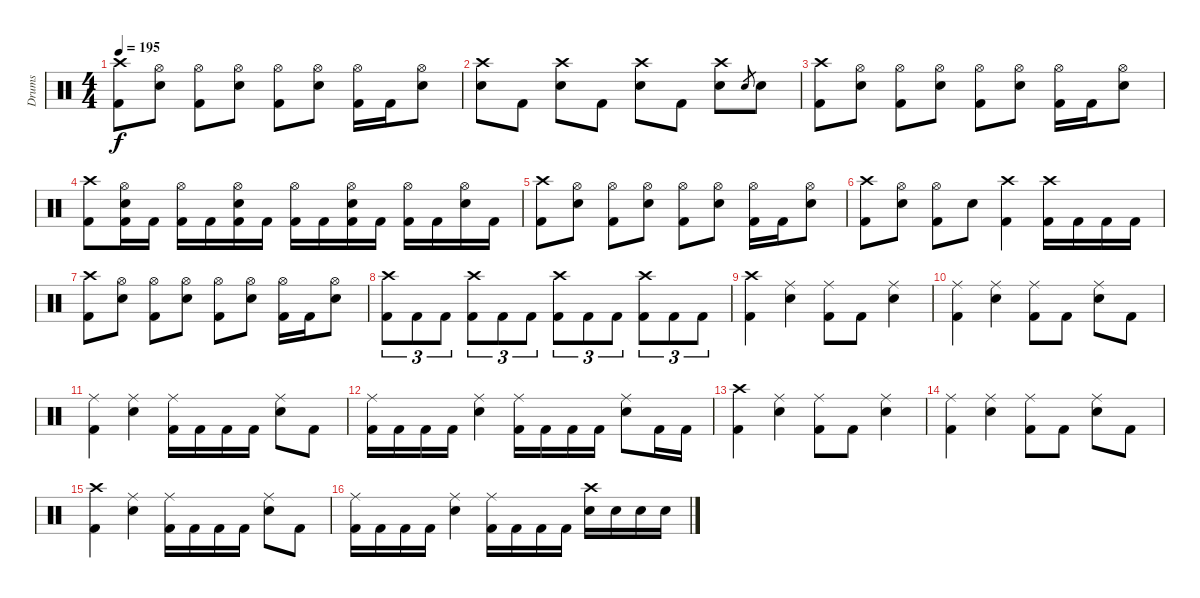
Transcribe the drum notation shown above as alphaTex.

\track ("Drums" "Drums") {instrument percussion}
\staff {score}
\articulation defaults
\ts (4 4)
\tempo 195
\clef neutral
\ks c
("Crash high (hit)" "Kick (hit) 2").8{dy f} ("Hi-Hat (open)" "Snare (hit) 2").8 ("Hi-Hat (open)" "Kick (hit) 2").8 ("Hi-Hat (open)" "Snare (hit) 2").8 ("Hi-Hat (open)" "Kick (hit) 2").8 ("Hi-Hat (open)" "Snare (hit) 2").8 ("Hi-Hat (open)" "Kick (hit) 2").16 "Kick (hit) 2".16 ("Hi-Hat (open)" "Snare (hit) 2").8 |
("Crash high (hit)" "Snare (hit) 2").8 "Kick (hit) 2".8 ("Crash high (hit)" "Snare (hit) 2").8 "Kick (hit) 2".8 ("Crash high (hit)" "Snare (hit) 2").8 "Kick (hit) 2".8 ("Crash high (hit)" "Snare (hit) 2").8 "Snare (hit) 2".8{gr} "Snare (hit) 2".8 |
("Crash high (hit)" "Kick (hit) 2").8 ("Hi-Hat (open)" "Snare (hit) 2").8 ("Hi-Hat (open)" "Kick (hit) 2").8 ("Hi-Hat (open)" "Snare (hit) 2").8 ("Hi-Hat (open)" "Kick (hit) 2").8 ("Hi-Hat (open)" "Snare (hit) 2").8 ("Hi-Hat (open)" "Kick (hit) 2").16 "Kick (hit) 2".16 ("Hi-Hat (open)" "Snare (hit) 2").8 |
("Crash high (hit)" "Kick (hit) 2").8 ("Hi-Hat (open)" "Snare (hit) 2" "Kick (hit) 2").16 "Kick (hit) 2".16 ("Hi-Hat (open)" "Kick (hit) 2").16 "Kick (hit) 2".16 ("Hi-Hat (open)" "Snare (hit) 2" "Kick (hit) 2").16 "Kick (hit) 2".16 ("Hi-Hat (open)" "Kick (hit) 2").16 "Kick (hit) 2".16 ("Hi-Hat (open)" "Snare (hit) 2" "Kick (hit) 2").16 "Kick (hit) 2".16 ("Hi-Hat (open)" "Kick (hit) 2").16 "Kick (hit) 2".16 ("Hi-Hat (open)" "Snare (hit) 2").16 "Kick (hit) 2".16 |
("Crash high (hit)" "Kick (hit) 2").8 ("Hi-Hat (open)" "Snare (hit) 2").8 ("Hi-Hat (open)" "Kick (hit) 2").8 ("Hi-Hat (open)" "Snare (hit) 2").8 ("Hi-Hat (open)" "Kick (hit) 2").8 ("Hi-Hat (open)" "Snare (hit) 2").8 ("Hi-Hat (open)" "Kick (hit) 2").16 "Kick (hit) 2".16 ("Hi-Hat (open)" "Snare (hit) 2").8 |
("Crash high (hit)" "Kick (hit) 2").8 ("Hi-Hat (open)" "Snare (hit) 2").8 ("Hi-Hat (open)" "Kick (hit) 2").8 "Snare (hit) 2".8 ("Crash high (hit)" "Kick (hit) 2").4 ("Crash high (hit)" "Kick (hit) 2").16 "Kick (hit) 2".16 "Kick (hit) 2".16 "Kick (hit) 2".16 |
("Crash high (hit)" "Kick (hit) 2").8 ("Hi-Hat (open)" "Snare (hit) 2").8 ("Hi-Hat (open)" "Kick (hit) 2").8 ("Hi-Hat (open)" "Snare (hit) 2").8 ("Hi-Hat (open)" "Kick (hit) 2").8 ("Hi-Hat (open)" "Snare (hit) 2").8 ("Hi-Hat (open)" "Kick (hit) 2").16 "Kick (hit) 2".16 ("Hi-Hat (open)" "Snare (hit) 2").8 |
("Crash high (hit)" "Kick (hit) 2").8{tu (3 2)} "Kick (hit) 2".8{tu (3 2)} "Kick (hit) 2".8{tu (3 2)} ("Crash high (hit)" "Kick (hit) 2").8{tu (3 2)} "Kick (hit) 2".8{tu (3 2)} "Kick (hit) 2".8{tu (3 2)} ("Crash high (hit)" "Kick (hit) 2").8{tu (3 2)} "Kick (hit) 2".8{tu (3 2)} "Kick (hit) 2".8{tu (3 2)} ("Crash high (hit)" "Kick (hit) 2").8{tu (3 2)} "Kick (hit) 2".8{tu (3 2)} "Kick (hit) 2".8{tu (3 2)} |
("Crash high (hit)" "Kick (hit) 2").4 ("Ride (middle)" "Snare (hit) 2").4 ("Ride (middle)" "Kick (hit) 2").8 "Kick (hit) 2".8 ("Ride (middle)" "Snare (hit) 2").4 |
("Ride (middle)" "Kick (hit) 2").4 ("Ride (middle)" "Snare (hit) 2").4 ("Ride (middle)" "Kick (hit) 2").8 "Kick (hit) 2".8 ("Ride (middle)" "Snare (hit) 2").8 "Kick (hit) 2".8 |
("Ride (middle)" "Kick (hit) 2").4 ("Ride (middle)" "Snare (hit) 2").4 ("Ride (middle)" "Kick (hit) 2").16 "Kick (hit) 2".16 "Kick (hit) 2".16 "Kick (hit) 2".16 ("Ride (middle)" "Snare (hit) 2").8 "Kick (hit) 2".8 |
("Ride (middle)" "Kick (hit) 2").16 "Kick (hit) 2".16 "Kick (hit) 2".16 "Kick (hit) 2".16 ("Ride (middle)" "Snare (hit) 2").4 ("Ride (middle)" "Kick (hit) 2").16 "Kick (hit) 2".16 "Kick (hit) 2".16 "Kick (hit) 2".16 ("Ride (middle)" "Snare (hit) 2").8 "Kick (hit) 2".16 "Kick (hit) 2".16 |
("Crash high (hit)" "Kick (hit) 2").4 ("Ride (middle)" "Snare (hit) 2").4 ("Ride (middle)" "Kick (hit) 2").8 "Kick (hit) 2".8 ("Ride (middle)" "Snare (hit) 2").4 |
("Ride (middle)" "Kick (hit) 2").4 ("Ride (middle)" "Snare (hit) 2").4 ("Ride (middle)" "Kick (hit) 2").8 "Kick (hit) 2".8 ("Ride (middle)" "Snare (hit) 2").8 "Kick (hit) 2".8 |
("Crash high (hit)" "Kick (hit) 2").4 ("Ride (middle)" "Snare (hit) 2").4 ("Ride (middle)" "Kick (hit) 2").16 "Kick (hit) 2".16 "Kick (hit) 2".16 "Kick (hit) 2".16 ("Ride (middle)" "Snare (hit) 2").8 "Kick (hit) 2".8 |
("Ride (middle)" "Kick (hit) 2").16 "Kick (hit) 2".16 "Kick (hit) 2".16 "Kick (hit) 2".16 ("Ride (middle)" "Snare (hit) 2").4 ("Ride (middle)" "Kick (hit) 2").16 "Kick (hit) 2".16 "Kick (hit) 2".16 "Kick (hit) 2".16 ("Crash high (hit)" "Snare (hit) 2").16 "Snare (hit) 2".16 "Snare (hit) 2".16 "Snare (hit) 2".16
